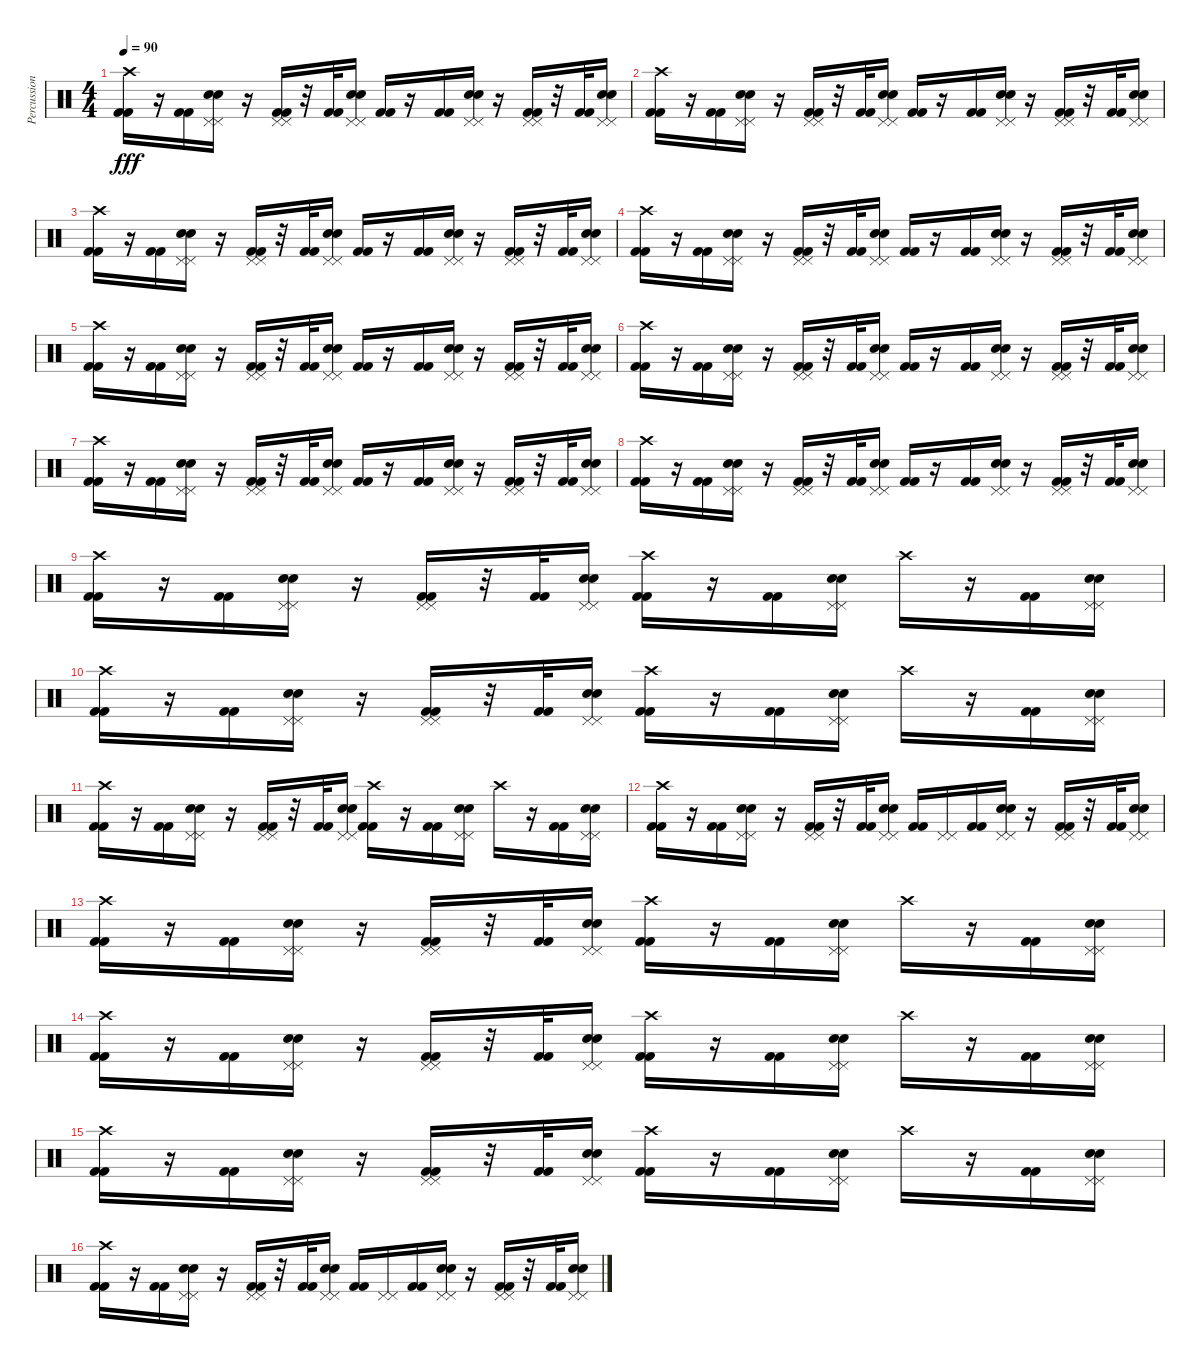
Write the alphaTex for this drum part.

\track ("Percussion" "Percussion") {instrument percussion}
\staff {score}
\articulation defaults
\ts (4 4)
\tempo 90
\clef neutral
\ks c
("Crash high (hit)" "Kick (hit) 2" "Kick (hit) 2").16{dy fff} r.16 ("Kick (hit) 2" "Kick (hit) 2").16 ("Pedal Hi-Hat (hit)" "Pedal Hi-Hat (hit)" "Electric Snare (hit)" "Electric Snare (hit)").16 r.16 ("Pedal Hi-Hat (hit)" "Pedal Hi-Hat (hit)" "Kick (hit) 2" "Kick (hit) 2").16 r.32 ("Kick (hit) 2" "Kick (hit) 2").32 ("Pedal Hi-Hat (hit)" "Pedal Hi-Hat (hit)" "Electric Snare (hit)" "Electric Snare (hit)").16 ("Kick (hit) 2" "Kick (hit) 2").16 r.16 ("Kick (hit) 2" "Kick (hit) 2").16 ("Pedal Hi-Hat (hit)" "Pedal Hi-Hat (hit)" "Electric Snare (hit)" "Electric Snare (hit)").16 r.16 ("Pedal Hi-Hat (hit)" "Pedal Hi-Hat (hit)" "Kick (hit) 2" "Kick (hit) 2").16 r.32 ("Kick (hit) 2" "Kick (hit) 2").32 ("Pedal Hi-Hat (hit)" "Pedal Hi-Hat (hit)" "Electric Snare (hit)" "Electric Snare (hit)").16 |
("Crash high (hit)" "Kick (hit) 2" "Kick (hit) 2").16 r.16 ("Kick (hit) 2" "Kick (hit) 2").16 ("Pedal Hi-Hat (hit)" "Pedal Hi-Hat (hit)" "Electric Snare (hit)" "Electric Snare (hit)").16 r.16 ("Pedal Hi-Hat (hit)" "Pedal Hi-Hat (hit)" "Kick (hit) 2" "Kick (hit) 2").16 r.32 ("Kick (hit) 2" "Kick (hit) 2").32 ("Pedal Hi-Hat (hit)" "Pedal Hi-Hat (hit)" "Electric Snare (hit)" "Electric Snare (hit)").16 ("Kick (hit) 2" "Kick (hit) 2").16 r.16 ("Kick (hit) 2" "Kick (hit) 2").16 ("Pedal Hi-Hat (hit)" "Pedal Hi-Hat (hit)" "Electric Snare (hit)" "Electric Snare (hit)").16 r.16 ("Pedal Hi-Hat (hit)" "Pedal Hi-Hat (hit)" "Kick (hit) 2" "Kick (hit) 2").16 r.32 ("Kick (hit) 2" "Kick (hit) 2").32 ("Pedal Hi-Hat (hit)" "Pedal Hi-Hat (hit)" "Electric Snare (hit)" "Electric Snare (hit)").16 |
("Crash high (hit)" "Kick (hit) 2" "Kick (hit) 2").16 r.16 ("Kick (hit) 2" "Kick (hit) 2").16 ("Pedal Hi-Hat (hit)" "Pedal Hi-Hat (hit)" "Electric Snare (hit)" "Electric Snare (hit)").16 r.16 ("Pedal Hi-Hat (hit)" "Pedal Hi-Hat (hit)" "Kick (hit) 2" "Kick (hit) 2").16 r.32 ("Kick (hit) 2" "Kick (hit) 2").32 ("Pedal Hi-Hat (hit)" "Pedal Hi-Hat (hit)" "Electric Snare (hit)" "Electric Snare (hit)").16 ("Kick (hit) 2" "Kick (hit) 2").16 r.16 ("Kick (hit) 2" "Kick (hit) 2").16 ("Pedal Hi-Hat (hit)" "Pedal Hi-Hat (hit)" "Electric Snare (hit)" "Electric Snare (hit)").16 r.16 ("Pedal Hi-Hat (hit)" "Pedal Hi-Hat (hit)" "Kick (hit) 2" "Kick (hit) 2").16 r.32 ("Kick (hit) 2" "Kick (hit) 2").32 ("Pedal Hi-Hat (hit)" "Pedal Hi-Hat (hit)" "Electric Snare (hit)" "Electric Snare (hit)").16 |
("Crash high (hit)" "Kick (hit) 2" "Kick (hit) 2").16 r.16 ("Kick (hit) 2" "Kick (hit) 2").16 ("Pedal Hi-Hat (hit)" "Pedal Hi-Hat (hit)" "Electric Snare (hit)" "Electric Snare (hit)").16 r.16 ("Pedal Hi-Hat (hit)" "Pedal Hi-Hat (hit)" "Kick (hit) 2" "Kick (hit) 2").16 r.32 ("Kick (hit) 2" "Kick (hit) 2").32 ("Pedal Hi-Hat (hit)" "Pedal Hi-Hat (hit)" "Electric Snare (hit)" "Electric Snare (hit)").16 ("Kick (hit) 2" "Kick (hit) 2").16 r.16 ("Kick (hit) 2" "Kick (hit) 2").16 ("Pedal Hi-Hat (hit)" "Pedal Hi-Hat (hit)" "Electric Snare (hit)" "Electric Snare (hit)").16 r.16 ("Pedal Hi-Hat (hit)" "Pedal Hi-Hat (hit)" "Kick (hit) 2" "Kick (hit) 2").16 r.32 ("Kick (hit) 2" "Kick (hit) 2").32 ("Pedal Hi-Hat (hit)" "Pedal Hi-Hat (hit)" "Electric Snare (hit)" "Electric Snare (hit)").16 |
("Crash high (hit)" "Kick (hit) 2" "Kick (hit) 2").16 r.16 ("Kick (hit) 2" "Kick (hit) 2").16 ("Pedal Hi-Hat (hit)" "Pedal Hi-Hat (hit)" "Electric Snare (hit)" "Electric Snare (hit)").16 r.16 ("Pedal Hi-Hat (hit)" "Pedal Hi-Hat (hit)" "Kick (hit) 2" "Kick (hit) 2").16 r.32 ("Kick (hit) 2" "Kick (hit) 2").32 ("Pedal Hi-Hat (hit)" "Pedal Hi-Hat (hit)" "Electric Snare (hit)" "Electric Snare (hit)").16 ("Kick (hit) 2" "Kick (hit) 2").16 r.16 ("Kick (hit) 2" "Kick (hit) 2").16 ("Pedal Hi-Hat (hit)" "Pedal Hi-Hat (hit)" "Electric Snare (hit)" "Electric Snare (hit)").16 r.16 ("Pedal Hi-Hat (hit)" "Pedal Hi-Hat (hit)" "Kick (hit) 2" "Kick (hit) 2").16 r.32 ("Kick (hit) 2" "Kick (hit) 2").32 ("Pedal Hi-Hat (hit)" "Pedal Hi-Hat (hit)" "Electric Snare (hit)" "Electric Snare (hit)").16 |
("Crash high (hit)" "Kick (hit) 2" "Kick (hit) 2").16 r.16 ("Kick (hit) 2" "Kick (hit) 2").16 ("Pedal Hi-Hat (hit)" "Pedal Hi-Hat (hit)" "Electric Snare (hit)" "Electric Snare (hit)").16 r.16 ("Pedal Hi-Hat (hit)" "Pedal Hi-Hat (hit)" "Kick (hit) 2" "Kick (hit) 2").16 r.32 ("Kick (hit) 2" "Kick (hit) 2").32 ("Pedal Hi-Hat (hit)" "Pedal Hi-Hat (hit)" "Electric Snare (hit)" "Electric Snare (hit)").16 ("Kick (hit) 2" "Kick (hit) 2").16 r.16 ("Kick (hit) 2" "Kick (hit) 2").16 ("Pedal Hi-Hat (hit)" "Pedal Hi-Hat (hit)" "Electric Snare (hit)" "Electric Snare (hit)").16 r.16 ("Pedal Hi-Hat (hit)" "Pedal Hi-Hat (hit)" "Kick (hit) 2" "Kick (hit) 2").16 r.32 ("Kick (hit) 2" "Kick (hit) 2").32 ("Pedal Hi-Hat (hit)" "Pedal Hi-Hat (hit)" "Electric Snare (hit)" "Electric Snare (hit)").16 |
("Crash high (hit)" "Kick (hit) 2" "Kick (hit) 2").16 r.16 ("Kick (hit) 2" "Kick (hit) 2").16 ("Pedal Hi-Hat (hit)" "Pedal Hi-Hat (hit)" "Electric Snare (hit)" "Electric Snare (hit)").16 r.16 ("Pedal Hi-Hat (hit)" "Pedal Hi-Hat (hit)" "Kick (hit) 2" "Kick (hit) 2").16 r.32 ("Kick (hit) 2" "Kick (hit) 2").32 ("Pedal Hi-Hat (hit)" "Pedal Hi-Hat (hit)" "Electric Snare (hit)" "Electric Snare (hit)").16 ("Kick (hit) 2" "Kick (hit) 2").16 r.16 ("Kick (hit) 2" "Kick (hit) 2").16 ("Pedal Hi-Hat (hit)" "Pedal Hi-Hat (hit)" "Electric Snare (hit)" "Electric Snare (hit)").16 r.16 ("Pedal Hi-Hat (hit)" "Pedal Hi-Hat (hit)" "Kick (hit) 2" "Kick (hit) 2").16 r.32 ("Kick (hit) 2" "Kick (hit) 2").32 ("Pedal Hi-Hat (hit)" "Pedal Hi-Hat (hit)" "Electric Snare (hit)" "Electric Snare (hit)").16 |
("Crash high (hit)" "Kick (hit) 2" "Kick (hit) 2").16 r.16 ("Kick (hit) 2" "Kick (hit) 2").16 ("Pedal Hi-Hat (hit)" "Pedal Hi-Hat (hit)" "Electric Snare (hit)" "Electric Snare (hit)").16 r.16 ("Pedal Hi-Hat (hit)" "Pedal Hi-Hat (hit)" "Kick (hit) 2" "Kick (hit) 2").16 r.32 ("Kick (hit) 2" "Kick (hit) 2").32 ("Pedal Hi-Hat (hit)" "Pedal Hi-Hat (hit)" "Electric Snare (hit)" "Electric Snare (hit)").16 ("Kick (hit) 2" "Kick (hit) 2").16 r.16 ("Kick (hit) 2" "Kick (hit) 2").16 ("Pedal Hi-Hat (hit)" "Pedal Hi-Hat (hit)" "Electric Snare (hit)" "Electric Snare (hit)").16 r.16 ("Pedal Hi-Hat (hit)" "Pedal Hi-Hat (hit)" "Kick (hit) 2" "Kick (hit) 2").16 r.32 ("Kick (hit) 2" "Kick (hit) 2").32 ("Pedal Hi-Hat (hit)" "Pedal Hi-Hat (hit)" "Electric Snare (hit)" "Electric Snare (hit)").16 |
("Crash high (hit)" "Kick (hit) 2" "Kick (hit) 2").16 r.16 ("Kick (hit) 2" "Kick (hit) 2").16 ("Pedal Hi-Hat (hit)" "Pedal Hi-Hat (hit)" "Electric Snare (hit)" "Electric Snare (hit)").16 r.16 ("Pedal Hi-Hat (hit)" "Pedal Hi-Hat (hit)" "Kick (hit) 2" "Kick (hit) 2").16 r.32 ("Kick (hit) 2" "Kick (hit) 2").32 ("Pedal Hi-Hat (hit)" "Pedal Hi-Hat (hit)" "Electric Snare (hit)" "Electric Snare (hit)").16 ("Crash high (hit)" "Kick (hit) 2" "Kick (hit) 2").16 r.16 ("Kick (hit) 2" "Kick (hit) 2").16 ("Pedal Hi-Hat (hit)" "Pedal Hi-Hat (hit)" "Electric Snare (hit)" "Electric Snare (hit)").16 "Crash high (hit)".16 r.16 ("Kick (hit) 2" "Kick (hit) 2").16 ("Pedal Hi-Hat (hit)" "Pedal Hi-Hat (hit)" "Electric Snare (hit)" "Electric Snare (hit)").16 |
("Crash high (hit)" "Kick (hit) 2" "Kick (hit) 2").16 r.16 ("Kick (hit) 2" "Kick (hit) 2").16 ("Pedal Hi-Hat (hit)" "Pedal Hi-Hat (hit)" "Electric Snare (hit)" "Electric Snare (hit)").16 r.16 ("Pedal Hi-Hat (hit)" "Pedal Hi-Hat (hit)" "Kick (hit) 2" "Kick (hit) 2").16 r.32 ("Kick (hit) 2" "Kick (hit) 2").32 ("Pedal Hi-Hat (hit)" "Pedal Hi-Hat (hit)" "Electric Snare (hit)" "Electric Snare (hit)").16 ("Crash high (hit)" "Kick (hit) 2" "Kick (hit) 2").16 r.16 ("Kick (hit) 2" "Kick (hit) 2").16 ("Pedal Hi-Hat (hit)" "Pedal Hi-Hat (hit)" "Electric Snare (hit)" "Electric Snare (hit)").16 "Crash high (hit)".16 r.16 ("Kick (hit) 2" "Kick (hit) 2").16 ("Pedal Hi-Hat (hit)" "Pedal Hi-Hat (hit)" "Electric Snare (hit)" "Electric Snare (hit)").16 |
("Crash high (hit)" "Kick (hit) 2" "Kick (hit) 2").16 r.16 ("Kick (hit) 2" "Kick (hit) 2").16 ("Pedal Hi-Hat (hit)" "Pedal Hi-Hat (hit)" "Electric Snare (hit)" "Electric Snare (hit)").16 r.16 ("Pedal Hi-Hat (hit)" "Pedal Hi-Hat (hit)" "Kick (hit) 2" "Kick (hit) 2").16 r.32 ("Kick (hit) 2" "Kick (hit) 2").32 ("Pedal Hi-Hat (hit)" "Pedal Hi-Hat (hit)" "Electric Snare (hit)" "Electric Snare (hit)").16 ("Crash high (hit)" "Kick (hit) 2" "Kick (hit) 2").16 r.16 ("Kick (hit) 2" "Kick (hit) 2").16 ("Pedal Hi-Hat (hit)" "Pedal Hi-Hat (hit)" "Electric Snare (hit)" "Electric Snare (hit)").16 "Crash high (hit)".16 r.16 ("Kick (hit) 2" "Kick (hit) 2").16 ("Pedal Hi-Hat (hit)" "Pedal Hi-Hat (hit)" "Electric Snare (hit)" "Electric Snare (hit)").16 |
("Crash high (hit)" "Kick (hit) 2" "Kick (hit) 2").16 r.16 ("Kick (hit) 2" "Kick (hit) 2").16 ("Pedal Hi-Hat (hit)" "Pedal Hi-Hat (hit)" "Electric Snare (hit)" "Electric Snare (hit)").16 r.16 ("Pedal Hi-Hat (hit)" "Pedal Hi-Hat (hit)" "Kick (hit) 2" "Kick (hit) 2").16 r.32 ("Kick (hit) 2" "Kick (hit) 2").32 ("Pedal Hi-Hat (hit)" "Pedal Hi-Hat (hit)" "Electric Snare (hit)" "Electric Snare (hit)").16 ("Kick (hit) 2" "Kick (hit) 2").16 ("Pedal Hi-Hat (hit)" "Pedal Hi-Hat (hit)").16 ("Kick (hit) 2" "Kick (hit) 2").16 ("Pedal Hi-Hat (hit)" "Pedal Hi-Hat (hit)" "Electric Snare (hit)" "Electric Snare (hit)").16 r.16 ("Pedal Hi-Hat (hit)" "Pedal Hi-Hat (hit)" "Kick (hit) 2" "Kick (hit) 2").16 r.32 ("Kick (hit) 2" "Kick (hit) 2").32 ("Pedal Hi-Hat (hit)" "Pedal Hi-Hat (hit)" "Electric Snare (hit)" "Electric Snare (hit)").16 |
("Crash high (hit)" "Kick (hit) 2" "Kick (hit) 2").16 r.16 ("Kick (hit) 2" "Kick (hit) 2").16 ("Pedal Hi-Hat (hit)" "Pedal Hi-Hat (hit)" "Electric Snare (hit)" "Electric Snare (hit)").16 r.16 ("Pedal Hi-Hat (hit)" "Pedal Hi-Hat (hit)" "Kick (hit) 2" "Kick (hit) 2").16 r.32 ("Kick (hit) 2" "Kick (hit) 2").32 ("Pedal Hi-Hat (hit)" "Pedal Hi-Hat (hit)" "Electric Snare (hit)" "Electric Snare (hit)").16 ("Crash high (hit)" "Kick (hit) 2" "Kick (hit) 2").16 r.16 ("Kick (hit) 2" "Kick (hit) 2").16 ("Pedal Hi-Hat (hit)" "Pedal Hi-Hat (hit)" "Electric Snare (hit)" "Electric Snare (hit)").16 "Crash high (hit)".16 r.16 ("Kick (hit) 2" "Kick (hit) 2").16 ("Pedal Hi-Hat (hit)" "Pedal Hi-Hat (hit)" "Electric Snare (hit)" "Electric Snare (hit)").16 |
("Crash high (hit)" "Kick (hit) 2" "Kick (hit) 2").16 r.16 ("Kick (hit) 2" "Kick (hit) 2").16 ("Pedal Hi-Hat (hit)" "Pedal Hi-Hat (hit)" "Electric Snare (hit)" "Electric Snare (hit)").16 r.16 ("Pedal Hi-Hat (hit)" "Pedal Hi-Hat (hit)" "Kick (hit) 2" "Kick (hit) 2").16 r.32 ("Kick (hit) 2" "Kick (hit) 2").32 ("Pedal Hi-Hat (hit)" "Pedal Hi-Hat (hit)" "Electric Snare (hit)" "Electric Snare (hit)").16 ("Crash high (hit)" "Kick (hit) 2" "Kick (hit) 2").16 r.16 ("Kick (hit) 2" "Kick (hit) 2").16 ("Pedal Hi-Hat (hit)" "Pedal Hi-Hat (hit)" "Electric Snare (hit)" "Electric Snare (hit)").16 "Crash high (hit)".16 r.16 ("Kick (hit) 2" "Kick (hit) 2").16 ("Pedal Hi-Hat (hit)" "Pedal Hi-Hat (hit)" "Electric Snare (hit)" "Electric Snare (hit)").16 |
("Crash high (hit)" "Kick (hit) 2" "Kick (hit) 2").16 r.16 ("Kick (hit) 2" "Kick (hit) 2").16 ("Pedal Hi-Hat (hit)" "Pedal Hi-Hat (hit)" "Electric Snare (hit)" "Electric Snare (hit)").16 r.16 ("Pedal Hi-Hat (hit)" "Pedal Hi-Hat (hit)" "Kick (hit) 2" "Kick (hit) 2").16 r.32 ("Kick (hit) 2" "Kick (hit) 2").32 ("Pedal Hi-Hat (hit)" "Pedal Hi-Hat (hit)" "Electric Snare (hit)" "Electric Snare (hit)").16 ("Crash high (hit)" "Kick (hit) 2" "Kick (hit) 2").16 r.16 ("Kick (hit) 2" "Kick (hit) 2").16 ("Pedal Hi-Hat (hit)" "Pedal Hi-Hat (hit)" "Electric Snare (hit)" "Electric Snare (hit)").16 "Crash high (hit)".16 r.16 ("Kick (hit) 2" "Kick (hit) 2").16 ("Pedal Hi-Hat (hit)" "Pedal Hi-Hat (hit)" "Electric Snare (hit)" "Electric Snare (hit)").16 |
("Crash high (hit)" "Kick (hit) 2" "Kick (hit) 2").16 r.16 ("Kick (hit) 2" "Kick (hit) 2").16 ("Pedal Hi-Hat (hit)" "Pedal Hi-Hat (hit)" "Electric Snare (hit)" "Electric Snare (hit)").16 r.16 ("Pedal Hi-Hat (hit)" "Pedal Hi-Hat (hit)" "Kick (hit) 2" "Kick (hit) 2").16 r.32 ("Kick (hit) 2" "Kick (hit) 2").32 ("Pedal Hi-Hat (hit)" "Pedal Hi-Hat (hit)" "Electric Snare (hit)" "Electric Snare (hit)").16 ("Kick (hit) 2" "Kick (hit) 2").16 ("Pedal Hi-Hat (hit)" "Pedal Hi-Hat (hit)").16 ("Kick (hit) 2" "Kick (hit) 2").16 ("Pedal Hi-Hat (hit)" "Pedal Hi-Hat (hit)" "Electric Snare (hit)" "Electric Snare (hit)").16 r.16 ("Pedal Hi-Hat (hit)" "Pedal Hi-Hat (hit)" "Kick (hit) 2" "Kick (hit) 2").16 r.32 ("Kick (hit) 2" "Kick (hit) 2").32 ("Pedal Hi-Hat (hit)" "Pedal Hi-Hat (hit)" "Electric Snare (hit)" "Electric Snare (hit)").16
